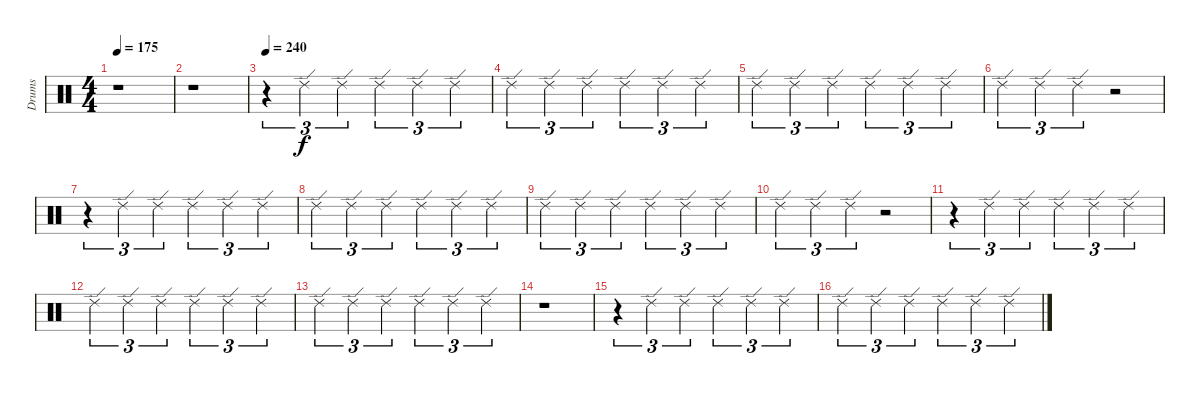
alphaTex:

\track ("Drums" "Drums") {instrument percussion}
\staff {score}
\articulation defaults
\ts (4 4)
\tempo 175
\clef neutral
\ks c
r.1{dy f} |
r.1 |
\tempo 240
r.4{tu (3 2)} "Ride (edge) 2".4{tu (3 2)} "Ride (edge) 2".4{tu (3 2)} "Ride (edge) 2".4{tu (3 2)} "Ride (edge) 2".4{tu (3 2)} "Ride (edge) 2".4{tu (3 2)} |
"Ride (edge) 2".4{tu (3 2)} "Ride (edge) 2".4{tu (3 2)} "Ride (edge) 2".4{tu (3 2)} "Ride (edge) 2".4{tu (3 2)} "Ride (edge) 2".4{tu (3 2)} "Ride (edge) 2".4{tu (3 2)} |
"Ride (edge) 2".4{tu (3 2)} "Ride (edge) 2".4{tu (3 2)} "Ride (edge) 2".4{tu (3 2)} "Ride (edge) 2".4{tu (3 2)} "Ride (edge) 2".4{tu (3 2)} "Ride (edge) 2".4{tu (3 2)} |
"Ride (edge) 2".4{tu (3 2)} "Ride (edge) 2".4{tu (3 2)} "Ride (edge) 2".4{tu (3 2)} r.2 |
r.4{tu (3 2)} "Ride (edge) 2".4{tu (3 2)} "Ride (edge) 2".4{tu (3 2)} "Ride (edge) 2".4{tu (3 2)} "Ride (edge) 2".4{tu (3 2)} "Ride (edge) 2".4{tu (3 2)} |
"Ride (edge) 2".4{tu (3 2)} "Ride (edge) 2".4{tu (3 2)} "Ride (edge) 2".4{tu (3 2)} "Ride (edge) 2".4{tu (3 2)} "Ride (edge) 2".4{tu (3 2)} "Ride (edge) 2".4{tu (3 2)} |
"Ride (edge) 2".4{tu (3 2)} "Ride (edge) 2".4{tu (3 2)} "Ride (edge) 2".4{tu (3 2)} "Ride (edge) 2".4{tu (3 2)} "Ride (edge) 2".4{tu (3 2)} "Ride (edge) 2".4{tu (3 2)} |
"Ride (edge) 2".4{tu (3 2)} "Ride (edge) 2".4{tu (3 2)} "Ride (edge) 2".4{tu (3 2)} r.2 |
r.4{tu (3 2)} "Ride (edge) 2".4{tu (3 2)} "Ride (edge) 2".4{tu (3 2)} "Ride (edge) 2".4{tu (3 2)} "Ride (edge) 2".4{tu (3 2)} "Ride (edge) 2".4{tu (3 2)} |
"Ride (edge) 2".4{tu (3 2)} "Ride (edge) 2".4{tu (3 2)} "Ride (edge) 2".4{tu (3 2)} "Ride (edge) 2".4{tu (3 2)} "Ride (edge) 2".4{tu (3 2)} "Ride (edge) 2".4{tu (3 2)} |
"Ride (edge) 2".4{tu (3 2)} "Ride (edge) 2".4{tu (3 2)} "Ride (edge) 2".4{tu (3 2)} "Ride (edge) 2".4{tu (3 2)} "Ride (edge) 2".4{tu (3 2)} "Ride (edge) 2".4{tu (3 2)} |
r.1 |
r.4{tu (3 2)} "Ride (edge) 2".4{tu (3 2)} "Ride (edge) 2".4{tu (3 2)} "Ride (edge) 2".4{tu (3 2)} "Ride (edge) 2".4{tu (3 2)} "Ride (edge) 2".4{tu (3 2)} |
"Ride (edge) 2".4{tu (3 2)} "Ride (edge) 2".4{tu (3 2)} "Ride (edge) 2".4{tu (3 2)} "Ride (edge) 2".4{tu (3 2)} "Ride (edge) 2".4{tu (3 2)} "Ride (edge) 2".4{tu (3 2)}
